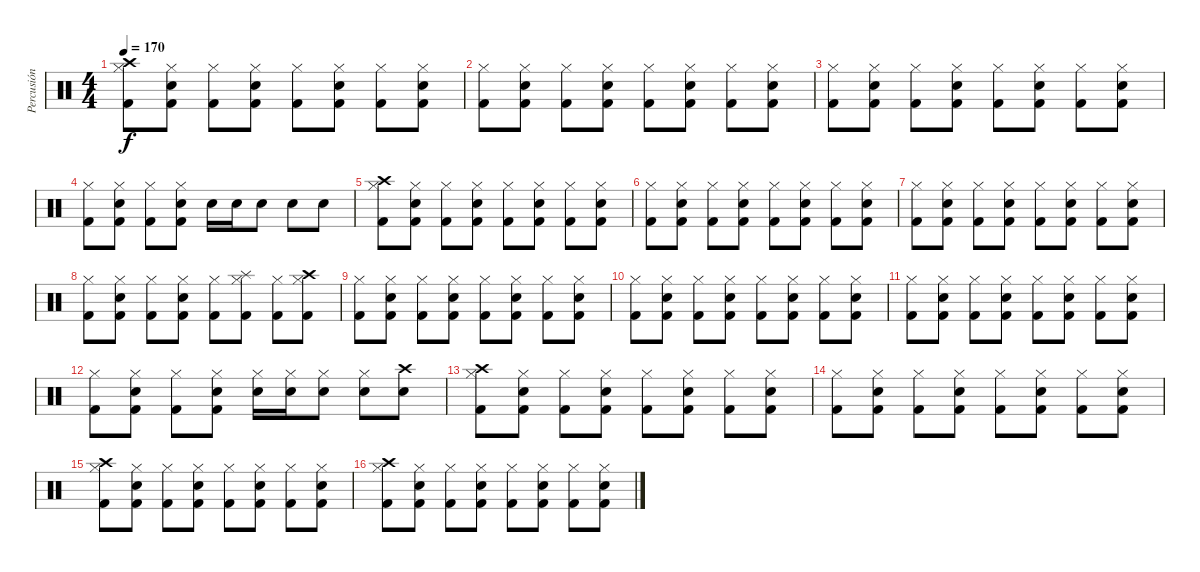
\track ("Percusión" "Percusión") {instrument percussion}
\staff {score}
\articulation defaults
\ts (4 4)
\tempo 170
\clef neutral
\ks c
("Hi-Hat (closed)" "Crash high (hit)" "Kick (hit) 2").8{dy f} ("Hi-Hat (closed)" "Snare (hit) 2" "Kick (hit) 2").8 ("Hi-Hat (closed)" "Kick (hit) 2").8 ("Hi-Hat (closed)" "Snare (hit) 2" "Kick (hit) 2").8 ("Hi-Hat (closed)" "Kick (hit) 2").8 ("Hi-Hat (closed)" "Snare (hit) 2" "Kick (hit) 2").8 ("Hi-Hat (closed)" "Kick (hit) 2").8 ("Hi-Hat (closed)" "Snare (hit) 2" "Kick (hit) 2").8 |
("Hi-Hat (closed)" "Kick (hit) 2").8 ("Hi-Hat (closed)" "Snare (hit) 2" "Kick (hit) 2").8 ("Hi-Hat (closed)" "Kick (hit) 2").8 ("Hi-Hat (closed)" "Snare (hit) 2" "Kick (hit) 2").8 ("Hi-Hat (closed)" "Kick (hit) 2").8 ("Hi-Hat (closed)" "Snare (hit) 2" "Kick (hit) 2").8 ("Hi-Hat (closed)" "Kick (hit) 2").8 ("Hi-Hat (closed)" "Snare (hit) 2" "Kick (hit) 2").8 |
("Hi-Hat (closed)" "Kick (hit) 2").8 ("Hi-Hat (closed)" "Snare (hit) 2" "Kick (hit) 2").8 ("Hi-Hat (closed)" "Kick (hit) 2").8 ("Hi-Hat (closed)" "Snare (hit) 2" "Kick (hit) 2").8 ("Hi-Hat (closed)" "Kick (hit) 2").8 ("Hi-Hat (closed)" "Snare (hit) 2" "Kick (hit) 2").8 ("Hi-Hat (closed)" "Kick (hit) 2").8 ("Hi-Hat (closed)" "Snare (hit) 2" "Kick (hit) 2").8 |
("Hi-Hat (closed)" "Kick (hit) 2").8 ("Hi-Hat (closed)" "Snare (hit) 2" "Kick (hit) 2").8 ("Hi-Hat (closed)" "Kick (hit) 2").8 ("Hi-Hat (closed)" "Snare (hit) 2" "Kick (hit) 2").8 "Snare (hit) 2".16 "Snare (hit) 2".16 "Snare (hit) 2".8 "Snare (hit) 2".8 "Snare (hit) 2".8 |
("Hi-Hat (closed)" "Crash high (hit)" "Kick (hit) 2").8 ("Hi-Hat (closed)" "Snare (hit) 2" "Kick (hit) 2").8 ("Hi-Hat (closed)" "Kick (hit) 2").8 ("Hi-Hat (closed)" "Snare (hit) 2" "Kick (hit) 2").8 ("Hi-Hat (closed)" "Kick (hit) 2").8 ("Hi-Hat (closed)" "Snare (hit) 2" "Kick (hit) 2").8 ("Hi-Hat (closed)" "Kick (hit) 2").8 ("Hi-Hat (closed)" "Snare (hit) 2" "Kick (hit) 2").8 |
("Hi-Hat (closed)" "Kick (hit) 2").8 ("Hi-Hat (closed)" "Snare (hit) 2" "Kick (hit) 2").8 ("Hi-Hat (closed)" "Kick (hit) 2").8 ("Hi-Hat (closed)" "Snare (hit) 2" "Kick (hit) 2").8 ("Hi-Hat (closed)" "Kick (hit) 2").8 ("Hi-Hat (closed)" "Snare (hit) 2" "Kick (hit) 2").8 ("Hi-Hat (closed)" "Kick (hit) 2").8 ("Hi-Hat (closed)" "Snare (hit) 2" "Kick (hit) 2").8 |
("Hi-Hat (closed)" "Kick (hit) 2").8 ("Hi-Hat (closed)" "Snare (hit) 2" "Kick (hit) 2").8 ("Hi-Hat (closed)" "Kick (hit) 2").8 ("Hi-Hat (closed)" "Snare (hit) 2" "Kick (hit) 2").8 ("Hi-Hat (closed)" "Kick (hit) 2").8 ("Hi-Hat (closed)" "Snare (hit) 2" "Kick (hit) 2").8 ("Hi-Hat (closed)" "Kick (hit) 2").8 ("Hi-Hat (closed)" "Snare (hit) 2" "Kick (hit) 2").8 |
("Hi-Hat (closed)" "Kick (hit) 2").8 ("Hi-Hat (closed)" "Snare (hit) 2" "Kick (hit) 2").8 ("Hi-Hat (closed)" "Kick (hit) 2").8 ("Hi-Hat (closed)" "Snare (hit) 2" "Kick (hit) 2").8 ("Hi-Hat (closed)" "Kick (hit) 2").8 ("Hi-Hat (closed)" "Splash (hit)" "Kick (hit) 2").8 ("Hi-Hat (closed)" "Kick (hit) 2").8 ("Hi-Hat (closed)" "Crash high (hit)" "Kick (hit) 2").8 |
("Hi-Hat (closed)" "Kick (hit) 2").8 ("Hi-Hat (closed)" "Snare (hit) 2" "Kick (hit) 2").8 ("Hi-Hat (closed)" "Kick (hit) 2").8 ("Hi-Hat (closed)" "Snare (hit) 2" "Kick (hit) 2").8 ("Hi-Hat (closed)" "Kick (hit) 2").8 ("Hi-Hat (closed)" "Snare (hit) 2" "Kick (hit) 2").8 ("Hi-Hat (closed)" "Kick (hit) 2").8 ("Hi-Hat (closed)" "Snare (hit) 2" "Kick (hit) 2").8 |
("Hi-Hat (closed)" "Kick (hit) 2").8 ("Hi-Hat (closed)" "Snare (hit) 2" "Kick (hit) 2").8 ("Hi-Hat (closed)" "Kick (hit) 2").8 ("Hi-Hat (closed)" "Snare (hit) 2" "Kick (hit) 2").8 ("Hi-Hat (closed)" "Kick (hit) 2").8 ("Hi-Hat (closed)" "Snare (hit) 2" "Kick (hit) 2").8 ("Hi-Hat (closed)" "Kick (hit) 2").8 ("Hi-Hat (closed)" "Snare (hit) 2" "Kick (hit) 2").8 |
("Hi-Hat (closed)" "Kick (hit) 2").8 ("Hi-Hat (closed)" "Snare (hit) 2" "Kick (hit) 2").8 ("Hi-Hat (closed)" "Kick (hit) 2").8 ("Hi-Hat (closed)" "Snare (hit) 2" "Kick (hit) 2").8 ("Hi-Hat (closed)" "Kick (hit) 2").8 ("Hi-Hat (closed)" "Snare (hit) 2" "Kick (hit) 2").8 ("Hi-Hat (closed)" "Kick (hit) 2").8 ("Hi-Hat (closed)" "Snare (hit) 2" "Kick (hit) 2").8 |
("Hi-Hat (closed)" "Kick (hit) 2").8 ("Hi-Hat (closed)" "Snare (hit) 2" "Kick (hit) 2").8 ("Hi-Hat (closed)" "Kick (hit) 2").8 ("Hi-Hat (closed)" "Snare (hit) 2" "Kick (hit) 2").8 ("Hi-Hat (closed)" "Snare (hit) 2").16 ("Hi-Hat (closed)" "Snare (hit) 2").16 ("Hi-Hat (closed)" "Snare (hit) 2").8 ("Hi-Hat (closed)" "Snare (hit) 2").8 ("Crash high (hit)" "Snare (hit) 2").8 |
("Hi-Hat (closed)" "Crash high (hit)" "Kick (hit) 2").8 ("Hi-Hat (closed)" "Snare (hit) 2" "Kick (hit) 2").8 ("Hi-Hat (closed)" "Kick (hit) 2").8 ("Hi-Hat (closed)" "Snare (hit) 2" "Kick (hit) 2").8 ("Hi-Hat (closed)" "Kick (hit) 2").8 ("Hi-Hat (closed)" "Snare (hit) 2" "Kick (hit) 2").8 ("Hi-Hat (closed)" "Kick (hit) 2").8 ("Hi-Hat (closed)" "Snare (hit) 2" "Kick (hit) 2").8 |
("Hi-Hat (closed)" "Kick (hit) 2").8 ("Hi-Hat (closed)" "Snare (hit) 2" "Kick (hit) 2").8 ("Hi-Hat (closed)" "Kick (hit) 2").8 ("Hi-Hat (closed)" "Snare (hit) 2" "Kick (hit) 2").8 ("Hi-Hat (closed)" "Kick (hit) 2").8 ("Hi-Hat (closed)" "Snare (hit) 2" "Kick (hit) 2").8 ("Hi-Hat (closed)" "Kick (hit) 2").8 ("Hi-Hat (closed)" "Snare (hit) 2" "Kick (hit) 2").8 |
("Hi-Hat (closed)" "Crash high (hit)" "Kick (hit) 2").8 ("Hi-Hat (closed)" "Snare (hit) 2" "Kick (hit) 2").8 ("Hi-Hat (closed)" "Kick (hit) 2").8 ("Hi-Hat (closed)" "Snare (hit) 2" "Kick (hit) 2").8 ("Hi-Hat (closed)" "Kick (hit) 2").8 ("Hi-Hat (closed)" "Snare (hit) 2" "Kick (hit) 2").8 ("Hi-Hat (closed)" "Kick (hit) 2").8 ("Hi-Hat (closed)" "Snare (hit) 2" "Kick (hit) 2").8 |
("Hi-Hat (closed)" "Crash high (hit)" "Kick (hit) 2").8 ("Hi-Hat (closed)" "Snare (hit) 2" "Kick (hit) 2").8 ("Hi-Hat (closed)" "Kick (hit) 2").8 ("Hi-Hat (closed)" "Snare (hit) 2" "Kick (hit) 2").8 ("Hi-Hat (closed)" "Kick (hit) 2").8 ("Hi-Hat (closed)" "Snare (hit) 2" "Kick (hit) 2").8 ("Hi-Hat (closed)" "Kick (hit) 2").8 ("Hi-Hat (closed)" "Snare (hit) 2" "Kick (hit) 2").8
